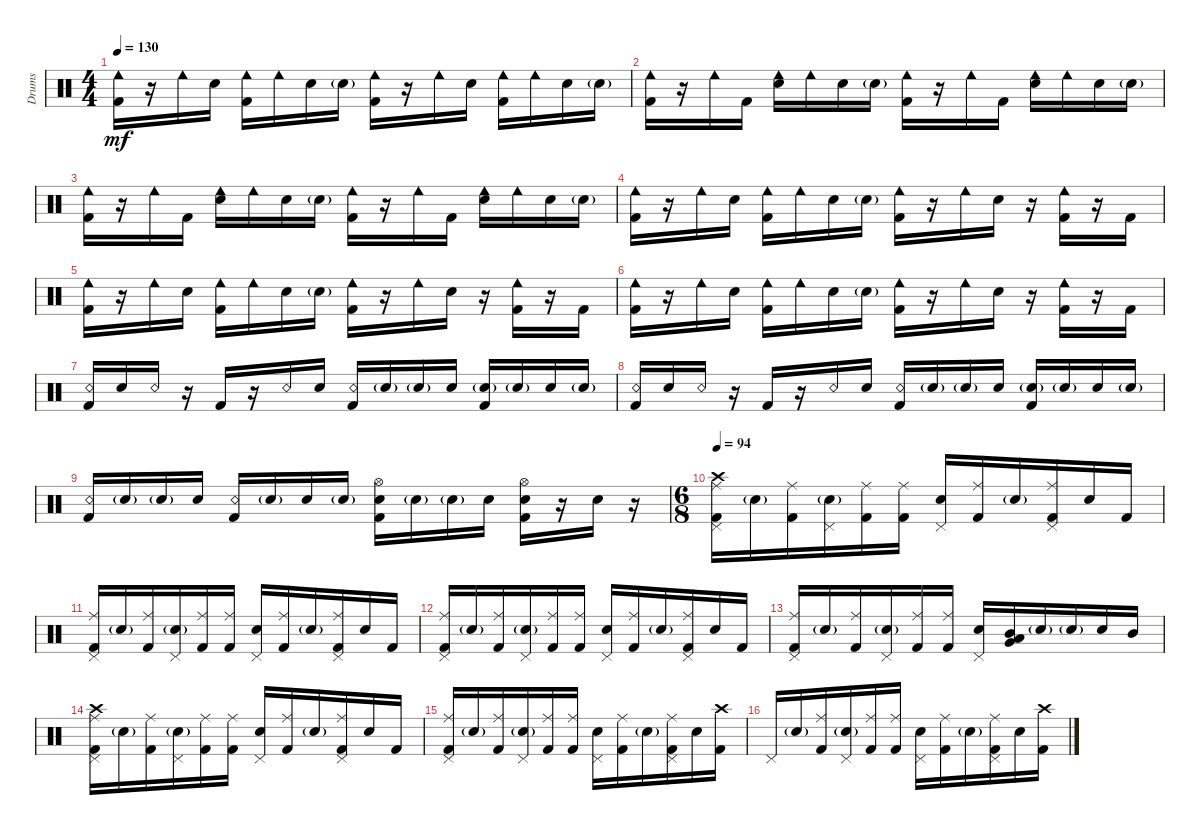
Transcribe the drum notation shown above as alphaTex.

\defaultSystemsLayout 4
\bracketExtendMode groupsimilarinstruments
\otherSystemsTrackNameOrientation horizontal
\track ("Godd" "Drums") {instrument percussion}
\staff {score}
\articulation defaults
\ts (4 4)
\tempo 130
\clef neutral
\scale
0.333333
\ks c
("Cowbell low (hit)" "Kick (hit) 2").16{dy mf} r.16 "Cowbell low (hit)".16 "Snare (hit) 2".16 ("Cowbell low (hit)" "Kick (hit) 2").16 "Cowbell low (hit)".16 "Snare (hit) 2".16 "Snare (hit) 2"{g}.16 ("Cowbell low (hit)" "Kick (hit) 2").16 r.16 "Cowbell low (hit)".16 "Snare (hit) 2".16 ("Cowbell low (hit)" "Kick (hit) 2").16 "Cowbell low (hit)".16 "Snare (hit) 2".16 "Snare (hit) 2"{g}.16 |
\scale
0.333333 ("Cowbell low (hit)" "Kick (hit) 2").16 r.16 "Cowbell low (hit)".16 "Kick (hit) 2".16 ("Cowbell low (hit)" "Snare (hit) 2").16 "Cowbell low (hit)".16 "Snare (hit) 2".16 "Snare (hit) 2"{g}.16 ("Cowbell low (hit)" "Kick (hit) 2").16 r.16 "Cowbell low (hit)".16 "Kick (hit) 2".16 ("Cowbell low (hit)" "Snare (hit) 2").16 "Cowbell low (hit)".16 "Snare (hit) 2".16 "Snare (hit) 2"{g}.16 |
\scale
0.333333 ("Cowbell low (hit)" "Kick (hit) 2").16 r.16 "Cowbell low (hit)".16 "Kick (hit) 2".16 ("Cowbell low (hit)" "Snare (hit) 2").16 "Cowbell low (hit)".16 "Snare (hit) 2".16 "Snare (hit) 2"{g}.16 ("Cowbell low (hit)" "Kick (hit) 2").16 r.16 "Cowbell low (hit)".16 "Kick (hit) 2".16 ("Cowbell low (hit)" "Snare (hit) 2").16 "Cowbell low (hit)".16 "Snare (hit) 2".16 "Snare (hit) 2"{g}.16 |
\scale
0.333333 ("Cowbell low (hit)" "Kick (hit) 2").16 r.16 "Cowbell low (hit)".16 "Snare (hit) 2".16 ("Cowbell low (hit)" "Kick (hit) 2").16 "Cowbell low (hit)".16 "Snare (hit) 2".16 "Snare (hit) 2"{g}.16 ("Cowbell low (hit)" "Kick (hit) 2").16 r.16 "Cowbell low (hit)".16 "Snare (hit) 2".16 r.16 ("Cowbell low (hit)" "Kick (hit) 2").16 r.16 "Kick (hit) 2".16 |
\scale
0.333333 ("Cowbell low (hit)" "Kick (hit) 2").16 r.16 "Cowbell low (hit)".16 "Snare (hit) 2".16 ("Cowbell low (hit)" "Kick (hit) 2").16 "Cowbell low (hit)".16 "Snare (hit) 2".16 "Snare (hit) 2"{g}.16 ("Cowbell low (hit)" "Kick (hit) 2").16 r.16 "Cowbell low (hit)".16 "Snare (hit) 2".16 r.16 ("Cowbell low (hit)" "Kick (hit) 2").16 r.16 "Kick (hit) 2".16 |
\scale
0.333333 ("Cowbell low (hit)" "Kick (hit) 2").16 r.16 "Cowbell low (hit)".16 "Snare (hit) 2".16 ("Cowbell low (hit)" "Kick (hit) 2").16 "Cowbell low (hit)".16 "Snare (hit) 2".16 "Snare (hit) 2"{g}.16 ("Cowbell low (hit)" "Kick (hit) 2").16 r.16 "Cowbell low (hit)".16 "Snare (hit) 2".16 r.16 ("Cowbell low (hit)" "Kick (hit) 2").16 r.16 "Kick (hit) 2".16 |
\scale
0.333333 ("Kick (hit) 2" "Snare (rim shot)").16 "Snare (hit) 2".16 "Snare (rim shot)".16 r.16 "Kick (hit) 2".16 r.16 "Snare (rim shot)".16 "Snare (hit) 2".16 ("Snare (rim shot)" "Kick (hit) 2").16 "Snare (hit) 2"{g}.16 "Snare (hit) 2"{g}.16 "Snare (hit) 2".16 ("Snare (hit) 2"{g} "Kick (hit) 2").16 "Snare (hit) 2"{g}.16 "Snare (hit) 2".16 "Snare (hit) 2"{g}.16 |
\scale
0.263889 ("Kick (hit) 2" "Snare (rim shot)").16 "Snare (hit) 2".16 "Snare (rim shot)".16 r.16 "Kick (hit) 2".16 r.16 "Snare (rim shot)".16 "Snare (hit) 2".16 ("Snare (rim shot)" "Kick (hit) 2").16 "Snare (hit) 2"{g}.16 "Snare (hit) 2"{g}.16 "Snare (hit) 2".16 ("Snare (hit) 2"{g} "Kick (hit) 2").16 "Snare (hit) 2"{g}.16 "Snare (hit) 2".16 "Snare (hit) 2"{g}.16 |
\scale
0.263889 ("Kick (hit) 2" "Snare (rim shot)").16 "Snare (hit) 2"{g}.16 "Snare (hit) 2"{g}.16 "Snare (hit) 2".16 ("Kick (hit) 2" "Snare (rim shot)").16 "Snare (hit) 2"{g}.16 "Snare (hit) 2".16 "Snare (hit) 2"{g}.16 ("Kick (hit) 2" "Hi-Hat (open)" "Snare (hit) 2").16 "Snare (hit) 2"{g}.16 "Snare (hit) 2"{g}.16 "Snare (hit) 2".16 ("Kick (hit) 2" "Hi-Hat (open)" "Snare (hit) 2").16 r.16 "Snare (hit) 2".16 r.16 |
\ts (6 8)
\tempo 94
\scale
0.472222 ("Kick (hit) 2" "Ride (middle)" "Pedal Hi-Hat (hit)" "Crash high (hit)").16 "Snare (hit) 2"{g}.16 ("Kick (hit) 2" "Ride (middle)").16 ("Snare (hit) 2"{g} "Pedal Hi-Hat (hit)").16 ("Kick (hit) 2" "Ride (middle)").16 ("Kick (hit) 2" "Ride (middle)").16 ("Snare (hit) 2" "Pedal Hi-Hat (hit)").16 ("Kick (hit) 2" "Ride (middle)").16 "Snare (hit) 2"{g}.16 ("Kick (hit) 2" "Ride (middle)" "Pedal Hi-Hat (hit)").16 "Snare (hit) 2".16 "Kick (hit) 2".16 |
\scale
0.333333 ("Kick (hit) 2" "Ride (middle)" "Pedal Hi-Hat (hit)").16 "Snare (hit) 2"{g}.16 ("Kick (hit) 2" "Ride (middle)").16 ("Snare (hit) 2"{g} "Pedal Hi-Hat (hit)").16 ("Kick (hit) 2" "Ride (middle)").16 ("Kick (hit) 2" "Ride (middle)").16 ("Snare (hit) 2" "Pedal Hi-Hat (hit)").16 ("Kick (hit) 2" "Ride (middle)").16 "Snare (hit) 2"{g}.16 ("Kick (hit) 2" "Ride (middle)" "Pedal Hi-Hat (hit)").16 "Snare (hit) 2".16 "Kick (hit) 2".16 |
\scale
0.333333 ("Kick (hit) 2" "Ride (middle)" "Pedal Hi-Hat (hit)").16 "Snare (hit) 2"{g}.16 ("Kick (hit) 2" "Ride (middle)").16 ("Snare (hit) 2"{g} "Pedal Hi-Hat (hit)").16 ("Kick (hit) 2" "Ride (middle)").16 ("Kick (hit) 2" "Ride (middle)").16 ("Snare (hit) 2" "Pedal Hi-Hat (hit)").16 ("Kick (hit) 2" "Ride (middle)").16 "Snare (hit) 2"{g}.16 ("Kick (hit) 2" "Ride (middle)" "Pedal Hi-Hat (hit)").16 "Snare (hit) 2".16 "Kick (hit) 2".16 |
\scale
0.333333 ("Kick (hit) 2" "Ride (middle)" "Pedal Hi-Hat (hit)").16 "Snare (hit) 2"{g}.16 ("Kick (hit) 2" "Ride (middle)").16 ("Snare (hit) 2"{g} "Pedal Hi-Hat (hit)").16 ("Kick (hit) 2" "Ride (middle)").16 ("Kick (hit) 2" "Ride (middle)").16 ("Snare (hit) 2" "Pedal Hi-Hat (hit)").16 ("Low Tom (hit)" "Mid Tom (hit)" "Very Low Tom (hit)").16 "Snare (hit) 2"{g}.16 "Snare (hit) 2"{g}.16 "Snare (hit) 2".16 "Mid Tom (hit)".16 |
\scale
0.333333 ("Kick (hit) 2" "Ride (middle)" "Pedal Hi-Hat (hit)" "Crash high (hit)").16 "Snare (hit) 2"{g}.16 ("Kick (hit) 2" "Ride (middle)").16 ("Snare (hit) 2"{g} "Pedal Hi-Hat (hit)").16 ("Kick (hit) 2" "Ride (middle)").16 ("Kick (hit) 2" "Ride (middle)").16 ("Snare (hit) 2" "Pedal Hi-Hat (hit)").16 ("Kick (hit) 2" "Ride (middle)").16 "Snare (hit) 2"{g}.16 ("Kick (hit) 2" "Ride (middle)" "Pedal Hi-Hat (hit)").16 "Snare (hit) 2".16 "Kick (hit) 2".16 |
\scale
0.333333 ("Kick (hit) 2" "Ride (middle)" "Pedal Hi-Hat (hit)").16 "Snare (hit) 2"{g}.16 ("Kick (hit) 2" "Ride (middle)").16 ("Snare (hit) 2"{g} "Pedal Hi-Hat (hit)").16 ("Kick (hit) 2" "Ride (middle)").16 ("Kick (hit) 2" "Ride (middle)").16 ("Snare (hit) 2" "Pedal Hi-Hat (hit)").16 ("Kick (hit) 2" "Ride (middle)").16 "Snare (hit) 2"{g}.16 ("Kick (hit) 2" "Ride (middle)" "Pedal Hi-Hat (hit)").16 "Snare (hit) 2".16 ("Kick (hit) 2" "Crash high (hit)").16 |
\scale
0.333333 "Pedal Hi-Hat (hit)".16 "Snare (hit) 2"{g}.16 ("Kick (hit) 2" "Ride (middle)").16 ("Snare (hit) 2"{g} "Pedal Hi-Hat (hit)").16 ("Kick (hit) 2" "Ride (middle)").16 ("Kick (hit) 2" "Ride (middle)").16 ("Snare (hit) 2" "Pedal Hi-Hat (hit)").16 ("Kick (hit) 2" "Ride (middle)").16 "Snare (hit) 2"{g}.16 ("Kick (hit) 2" "Ride (middle)" "Pedal Hi-Hat (hit)").16 "Snare (hit) 2".16 ("Kick (hit) 2" "Crash high (hit)").16
